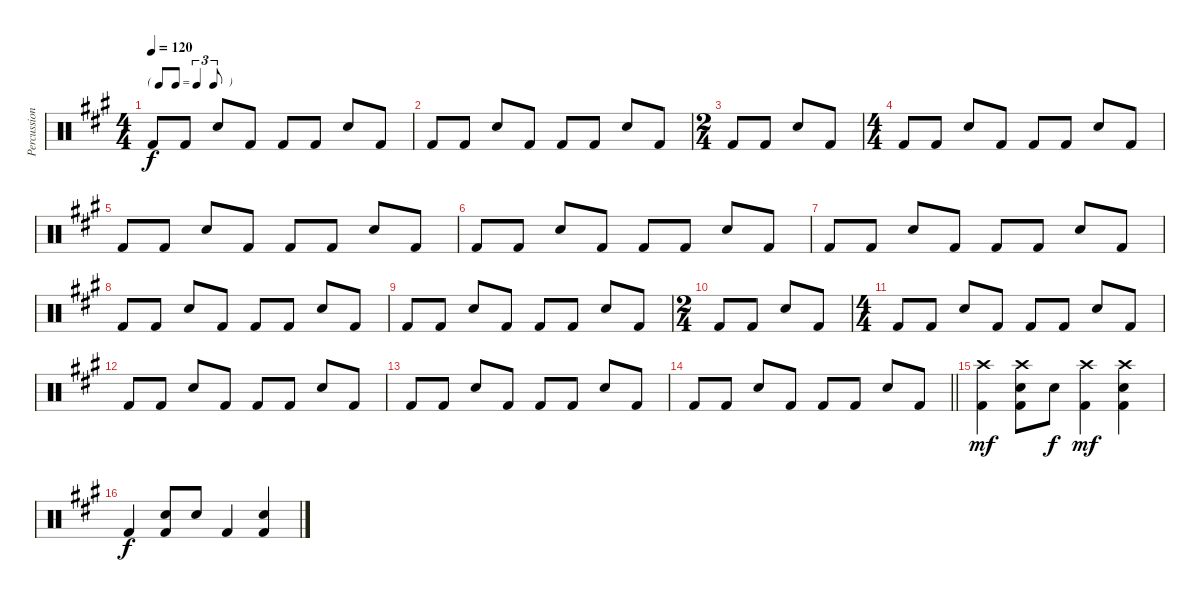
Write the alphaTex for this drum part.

\track ("Percussion" "Percussion") {instrument percussion}
\staff {score}
\articulation defaults
\ts (4 4)
\tf triplet8th
\tempo 120
\clef neutral
\ks a "Kick (hit) 2".8{dy f} "Kick (hit) 2".8 "Snare (hit) 2".8 "Kick (hit) 2".8 "Kick (hit) 2".8 "Kick (hit) 2".8 "Snare (hit) 2".8 "Kick (hit) 2".8
|
"Kick (hit) 2".8 "Kick (hit) 2".8 "Snare (hit) 2".8 "Kick (hit) 2".8 "Kick (hit) 2".8 "Kick (hit) 2".8 "Snare (hit) 2".8 "Kick (hit) 2".8 |
\ts (2 4)
"Kick (hit) 2".8 "Kick (hit) 2".8 "Snare (hit) 2".8 "Kick (hit) 2".8 |
\ts (4 4)
"Kick (hit) 2".8 "Kick (hit) 2".8 "Snare (hit) 2".8 "Kick (hit) 2".8 "Kick (hit) 2".8 "Kick (hit) 2".8 "Snare (hit) 2".8 "Kick (hit) 2".8 |
"Kick (hit) 2".8 "Kick (hit) 2".8 "Snare (hit) 2".8 "Kick (hit) 2".8 "Kick (hit) 2".8 "Kick (hit) 2".8 "Snare (hit) 2".8 "Kick (hit) 2".8 |
"Kick (hit) 2".8 "Kick (hit) 2".8 "Snare (hit) 2".8 "Kick (hit) 2".8 "Kick (hit) 2".8 "Kick (hit) 2".8 "Snare (hit) 2".8 "Kick (hit) 2".8 |
"Kick (hit) 2".8 "Kick (hit) 2".8 "Snare (hit) 2".8 "Kick (hit) 2".8 "Kick (hit) 2".8 "Kick (hit) 2".8 "Snare (hit) 2".8 "Kick (hit) 2".8 |
"Kick (hit) 2".8 "Kick (hit) 2".8 "Snare (hit) 2".8 "Kick (hit) 2".8 "Kick (hit) 2".8 "Kick (hit) 2".8 "Snare (hit) 2".8 "Kick (hit) 2".8 |
"Kick (hit) 2".8 "Kick (hit) 2".8 "Snare (hit) 2".8 "Kick (hit) 2".8 "Kick (hit) 2".8 "Kick (hit) 2".8 "Snare (hit) 2".8 "Kick (hit) 2".8 |
\ts (2 4)
"Kick (hit) 2".8 "Kick (hit) 2".8 "Snare (hit) 2".8 "Kick (hit) 2".8 |
\ts (4 4)
"Kick (hit) 2".8 "Kick (hit) 2".8 "Snare (hit) 2".8 "Kick (hit) 2".8 "Kick (hit) 2".8 "Kick (hit) 2".8 "Snare (hit) 2".8 "Kick (hit) 2".8 |
"Kick (hit) 2".8 "Kick (hit) 2".8 "Snare (hit) 2".8 "Kick (hit) 2".8 "Kick (hit) 2".8 "Kick (hit) 2".8 "Snare (hit) 2".8 "Kick (hit) 2".8 |
"Kick (hit) 2".8 "Kick (hit) 2".8 "Snare (hit) 2".8 "Kick (hit) 2".8 "Kick (hit) 2".8 "Kick (hit) 2".8 "Snare (hit) 2".8 "Kick (hit) 2".8 |
\barLineRight lightlight "Kick (hit) 2".8 "Kick (hit) 2".8 "Snare (hit) 2".8 "Kick (hit) 2".8 "Kick (hit) 2".8 "Kick (hit) 2".8 "Snare (hit) 2".8 "Kick (hit) 2".8
|
("Crash high (hit)" "Kick (hit) 2").4{dy mf} ("Crash high (hit)" "Snare (hit) 2" "Kick (hit) 2").8 "Snare (hit) 2".8{dy f} ("Crash high (hit)" "Kick (hit) 2").4{dy mf} ("Crash high (hit)" "Snare (hit) 2" "Kick (hit) 2").4 |
"Kick (hit) 2".4{dy f} ("Snare (hit) 2" "Kick (hit) 2").8 "Snare (hit) 2".8 "Kick (hit) 2".4 ("Snare (hit) 2" "Kick (hit) 2").4
